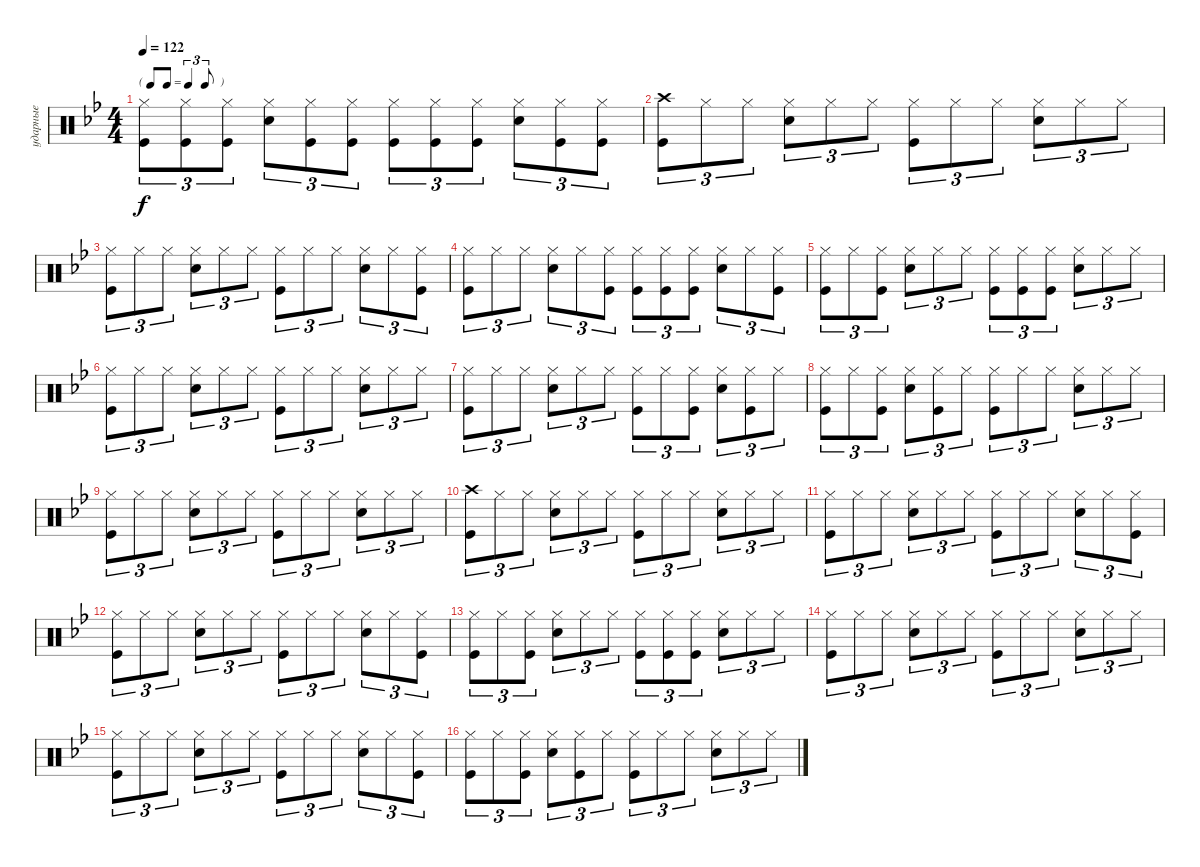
\track ("ударные" "ударные") {instrument percussion}
\staff {score}
\articulation defaults
\ts (4 4)
\tf triplet8th
\tempo 122
\clef neutral
\ks gminor
("Hi-Hat (closed)" "Kick (hit)").8{tu (3 2) dy f} ("Hi-Hat (closed)" "Kick (hit)").8{tu (3 2)} ("Hi-Hat (closed)" "Kick (hit)").8{tu (3 2)} ("Hi-Hat (closed)" "Snare (hit) 2").8{tu (3 2)} ("Hi-Hat (closed)" "Kick (hit)").8{tu (3 2)} ("Hi-Hat (closed)" "Kick (hit)").8{tu (3 2)} ("Hi-Hat (closed)" "Kick (hit)").8{tu (3 2)} ("Hi-Hat (closed)" "Kick (hit)").8{tu (3 2)} ("Hi-Hat (closed)" "Kick (hit)").8{tu (3 2)} ("Hi-Hat (closed)" "Snare (hit) 2").8{tu (3 2)} ("Hi-Hat (closed)" "Kick (hit)").8{tu (3 2)} ("Hi-Hat (closed)" "Kick (hit)").8{tu (3 2)} |
("Kick (hit)" "Crash high (hit)").8{tu (3 2)} "Hi-Hat (closed)".8{tu (3 2)} "Hi-Hat (closed)".8{tu (3 2)} ("Hi-Hat (closed)" "Snare (hit) 2").8{tu (3 2)} "Hi-Hat (closed)".8{tu (3 2)} "Hi-Hat (closed)".8{tu (3 2)} ("Hi-Hat (closed)" "Kick (hit)").8{tu (3 2)} "Hi-Hat (closed)".8{tu (3 2)} "Hi-Hat (closed)".8{tu (3 2)} ("Hi-Hat (closed)" "Snare (hit) 2").8{tu (3 2)} "Hi-Hat (closed)".8{tu (3 2)} "Hi-Hat (closed)".8{tu (3 2)} |
("Hi-Hat (closed)" "Kick (hit)").8{tu (3 2)} "Hi-Hat (closed)".8{tu (3 2)} "Hi-Hat (closed)".8{tu (3 2)} ("Hi-Hat (closed)" "Snare (hit) 2").8{tu (3 2)} "Hi-Hat (closed)".8{tu (3 2)} "Hi-Hat (closed)".8{tu (3 2)} ("Hi-Hat (closed)" "Kick (hit)").8{tu (3 2)} "Hi-Hat (closed)".8{tu (3 2)} "Hi-Hat (closed)".8{tu (3 2)} ("Hi-Hat (closed)" "Snare (hit) 2").8{tu (3 2)} "Hi-Hat (closed)".8{tu (3 2)} ("Hi-Hat (closed)" "Kick (hit)").8{tu (3 2)} |
("Hi-Hat (closed)" "Kick (hit)").8{tu (3 2)} "Hi-Hat (closed)".8{tu (3 2)} "Hi-Hat (closed)".8{tu (3 2)} ("Hi-Hat (closed)" "Snare (hit) 2").8{tu (3 2)} "Hi-Hat (closed)".8{tu (3 2)} ("Hi-Hat (closed)" "Kick (hit)").8{tu (3 2)} ("Hi-Hat (closed)" "Kick (hit)").8{tu (3 2)} ("Hi-Hat (closed)" "Kick (hit)").8{tu (3 2)} ("Hi-Hat (closed)" "Kick (hit)").8{tu (3 2)} ("Hi-Hat (closed)" "Snare (hit) 2").8{tu (3 2)} "Hi-Hat (closed)".8{tu (3 2)} ("Hi-Hat (closed)" "Kick (hit)").8{tu (3 2)} |
("Hi-Hat (closed)" "Kick (hit)").8{tu (3 2)} "Hi-Hat (closed)".8{tu (3 2)} ("Hi-Hat (closed)" "Kick (hit)").8{tu (3 2)} ("Hi-Hat (closed)" "Snare (hit) 2").8{tu (3 2)} "Hi-Hat (closed)".8{tu (3 2)} "Hi-Hat (closed)".8{tu (3 2)} ("Hi-Hat (closed)" "Kick (hit)").8{tu (3 2)} ("Hi-Hat (closed)" "Kick (hit)").8{tu (3 2)} ("Hi-Hat (closed)" "Kick (hit)").8{tu (3 2)} ("Hi-Hat (closed)" "Snare (hit) 2").8{tu (3 2)} "Hi-Hat (closed)".8{tu (3 2)} "Hi-Hat (closed)".8{tu (3 2)} |
("Hi-Hat (closed)" "Kick (hit)").8{tu (3 2)} "Hi-Hat (closed)".8{tu (3 2)} "Hi-Hat (closed)".8{tu (3 2)} ("Hi-Hat (closed)" "Snare (hit) 2").8{tu (3 2)} "Hi-Hat (closed)".8{tu (3 2)} "Hi-Hat (closed)".8{tu (3 2)} ("Hi-Hat (closed)" "Kick (hit)").8{tu (3 2)} "Hi-Hat (closed)".8{tu (3 2)} "Hi-Hat (closed)".8{tu (3 2)} ("Hi-Hat (closed)" "Snare (hit) 2").8{tu (3 2)} "Hi-Hat (closed)".8{tu (3 2)} "Hi-Hat (closed)".8{tu (3 2)} |
("Hi-Hat (closed)" "Kick (hit)").8{tu (3 2)} "Hi-Hat (closed)".8{tu (3 2)} "Hi-Hat (closed)".8{tu (3 2)} ("Hi-Hat (closed)" "Snare (hit) 2").8{tu (3 2)} "Hi-Hat (closed)".8{tu (3 2)} "Hi-Hat (closed)".8{tu (3 2)} ("Hi-Hat (closed)" "Kick (hit)").8{tu (3 2)} "Hi-Hat (closed)".8{tu (3 2)} ("Hi-Hat (closed)" "Kick (hit)").8{tu (3 2)} ("Hi-Hat (closed)" "Snare (hit) 2").8{tu (3 2)} ("Hi-Hat (closed)" "Kick (hit)").8{tu (3 2)} "Hi-Hat (closed)".8{tu (3 2)} |
("Hi-Hat (closed)" "Kick (hit)").8{tu (3 2)} "Hi-Hat (closed)".8{tu (3 2)} ("Hi-Hat (closed)" "Kick (hit)").8{tu (3 2)} ("Hi-Hat (closed)" "Snare (hit) 2").8{tu (3 2)} ("Hi-Hat (closed)" "Kick (hit)").8{tu (3 2)} "Hi-Hat (closed)".8{tu (3 2)} ("Hi-Hat (closed)" "Kick (hit)").8{tu (3 2)} "Hi-Hat (closed)".8{tu (3 2)} "Hi-Hat (closed)".8{tu (3 2)} ("Hi-Hat (closed)" "Snare (hit) 2").8{tu (3 2)} "Hi-Hat (closed)".8{tu (3 2)} "Hi-Hat (closed)".8{tu (3 2)} |
("Hi-Hat (closed)" "Kick (hit)").8{tu (3 2)} "Hi-Hat (closed)".8{tu (3 2)} "Hi-Hat (closed)".8{tu (3 2)} ("Hi-Hat (closed)" "Snare (hit) 2").8{tu (3 2)} "Hi-Hat (closed)".8{tu (3 2)} "Hi-Hat (closed)".8{tu (3 2)} ("Hi-Hat (closed)" "Kick (hit)").8{tu (3 2)} "Hi-Hat (closed)".8{tu (3 2)} "Hi-Hat (closed)".8{tu (3 2)} ("Hi-Hat (closed)" "Snare (hit) 2").8{tu (3 2)} "Hi-Hat (closed)".8{tu (3 2)} "Hi-Hat (closed)".8{tu (3 2)} |
("Kick (hit)" "Crash high (hit)").8{tu (3 2)} "Hi-Hat (closed)".8{tu (3 2)} "Hi-Hat (closed)".8{tu (3 2)} ("Hi-Hat (closed)" "Snare (hit) 2").8{tu (3 2)} "Hi-Hat (closed)".8{tu (3 2)} "Hi-Hat (closed)".8{tu (3 2)} ("Hi-Hat (closed)" "Kick (hit)").8{tu (3 2)} "Hi-Hat (closed)".8{tu (3 2)} "Hi-Hat (closed)".8{tu (3 2)} ("Hi-Hat (closed)" "Snare (hit) 2").8{tu (3 2)} "Hi-Hat (closed)".8{tu (3 2)} "Hi-Hat (closed)".8{tu (3 2)} |
("Hi-Hat (closed)" "Kick (hit)").8{tu (3 2)} "Hi-Hat (closed)".8{tu (3 2)} "Hi-Hat (closed)".8{tu (3 2)} ("Hi-Hat (closed)" "Snare (hit) 2").8{tu (3 2)} "Hi-Hat (closed)".8{tu (3 2)} "Hi-Hat (closed)".8{tu (3 2)} ("Hi-Hat (closed)" "Kick (hit)").8{tu (3 2)} "Hi-Hat (closed)".8{tu (3 2)} "Hi-Hat (closed)".8{tu (3 2)} ("Hi-Hat (closed)" "Snare (hit) 2").8{tu (3 2)} "Hi-Hat (closed)".8{tu (3 2)} ("Hi-Hat (closed)" "Kick (hit)").8{tu (3 2)} |
("Hi-Hat (closed)" "Kick (hit)").8{tu (3 2)} "Hi-Hat (closed)".8{tu (3 2)} "Hi-Hat (closed)".8{tu (3 2)} ("Hi-Hat (closed)" "Snare (hit) 2").8{tu (3 2)} "Hi-Hat (closed)".8{tu (3 2)} "Hi-Hat (closed)".8{tu (3 2)} ("Hi-Hat (closed)" "Kick (hit)").8{tu (3 2)} "Hi-Hat (closed)".8{tu (3 2)} "Hi-Hat (closed)".8{tu (3 2)} ("Hi-Hat (closed)" "Snare (hit) 2").8{tu (3 2)} "Hi-Hat (closed)".8{tu (3 2)} ("Hi-Hat (closed)" "Kick (hit)").8{tu (3 2)} |
("Hi-Hat (closed)" "Kick (hit)").8{tu (3 2)} "Hi-Hat (closed)".8{tu (3 2)} ("Hi-Hat (closed)" "Kick (hit)").8{tu (3 2)} ("Hi-Hat (closed)" "Snare (hit) 2").8{tu (3 2)} "Hi-Hat (closed)".8{tu (3 2)} "Hi-Hat (closed)".8{tu (3 2)} ("Hi-Hat (closed)" "Kick (hit)").8{tu (3 2)} ("Hi-Hat (closed)" "Kick (hit)").8{tu (3 2)} ("Hi-Hat (closed)" "Kick (hit)").8{tu (3 2)} ("Hi-Hat (closed)" "Snare (hit) 2").8{tu (3 2)} "Hi-Hat (closed)".8{tu (3 2)} "Hi-Hat (closed)".8{tu (3 2)} |
("Hi-Hat (closed)" "Kick (hit)").8{tu (3 2)} "Hi-Hat (closed)".8{tu (3 2)} "Hi-Hat (closed)".8{tu (3 2)} ("Hi-Hat (closed)" "Snare (hit) 2").8{tu (3 2)} "Hi-Hat (closed)".8{tu (3 2)} "Hi-Hat (closed)".8{tu (3 2)} ("Hi-Hat (closed)" "Kick (hit)").8{tu (3 2)} "Hi-Hat (closed)".8{tu (3 2)} "Hi-Hat (closed)".8{tu (3 2)} ("Hi-Hat (closed)" "Snare (hit) 2").8{tu (3 2)} "Hi-Hat (closed)".8{tu (3 2)} "Hi-Hat (closed)".8{tu (3 2)} |
("Hi-Hat (closed)" "Kick (hit)").8{tu (3 2)} "Hi-Hat (closed)".8{tu (3 2)} "Hi-Hat (closed)".8{tu (3 2)} ("Hi-Hat (closed)" "Snare (hit) 2").8{tu (3 2)} "Hi-Hat (closed)".8{tu (3 2)} "Hi-Hat (closed)".8{tu (3 2)} ("Hi-Hat (closed)" "Kick (hit)").8{tu (3 2)} "Hi-Hat (closed)".8{tu (3 2)} "Hi-Hat (closed)".8{tu (3 2)} ("Hi-Hat (closed)" "Snare (hit) 2").8{tu (3 2)} "Hi-Hat (closed)".8{tu (3 2)} ("Hi-Hat (closed)" "Kick (hit)").8{tu (3 2)} |
("Hi-Hat (closed)" "Kick (hit)").8{tu (3 2)} "Hi-Hat (closed)".8{tu (3 2)} ("Hi-Hat (closed)" "Kick (hit)").8{tu (3 2)} ("Hi-Hat (closed)" "Snare (hit) 2").8{tu (3 2)} ("Hi-Hat (closed)" "Kick (hit)").8{tu (3 2)} "Hi-Hat (closed)".8{tu (3 2)} ("Hi-Hat (closed)" "Kick (hit)").8{tu (3 2)} "Hi-Hat (closed)".8{tu (3 2)} "Hi-Hat (closed)".8{tu (3 2)} ("Hi-Hat (closed)" "Snare (hit) 2").8{tu (3 2)} "Hi-Hat (closed)".8{tu (3 2)} "Hi-Hat (closed)".8{tu (3 2)}
